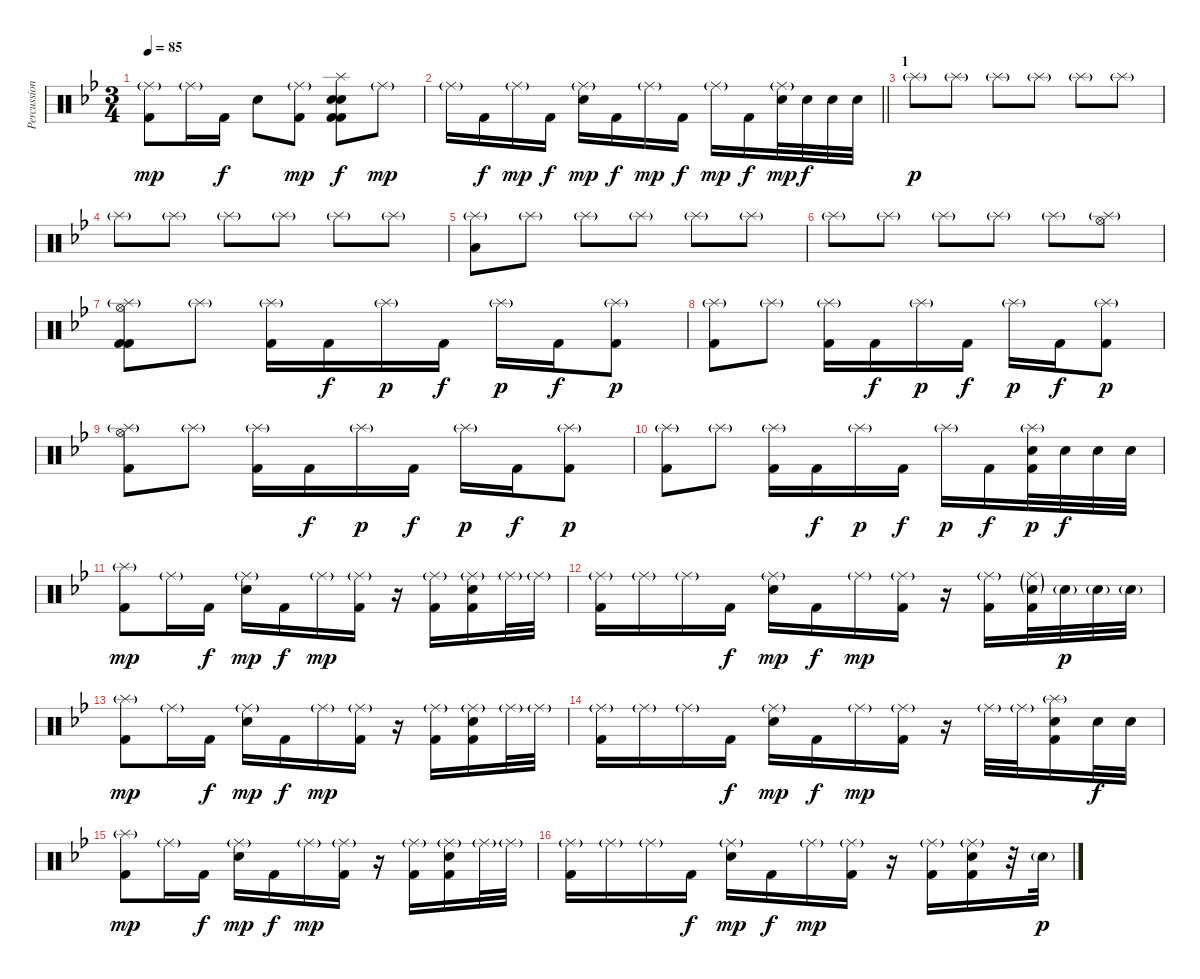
\track ("Percussion" "Percussion") {instrument percussion}
\staff {score}
\articulation defaults
\ts (3 4)
\tempo 85
\clef neutral
\ks bb
("Ride (middle)"{g} "Kick (hit) 2").8{dy mp} "Ride (middle)"{g}.16 "Kick (hit) 2".16{dy f} "Snare (hit) 2".8 ("Ride (middle)"{g} "Kick (hit) 2").8{dy mp} ("Splash (hit)" "Snare (hit) 2" "Snare (hit) 2" "Kick (hit) 2" "Kick (hit) 2").8{dy f} "Ride (middle)"{g}.8{dy mp} |
\barLineRight lightlight "Ride (middle)"{g}.16 "Kick (hit) 2".16{dy f} "Ride (middle)"{g}.16{dy mp} "Kick (hit) 2".16{dy f}
("Ride (middle)"{g} "Snare (hit) 2").16{dy mp} "Kick (hit) 2".16{dy f} "Ride (middle)"{g}.16{dy mp} "Kick (hit) 2".16{dy f} "Ride (middle)"{g}.16{dy mp} "Kick (hit) 2".16{dy f} ("Ride (middle)"{g} "Snare (hit) 2").32{dy mp} "Snare (hit) 2".32{dy f} "Snare (hit) 2".32 "Snare (hit) 2".32 |
\section ("" "1")
"Splash (hit)"{g}.8{dy p} "Splash (hit)"{g}.8 "Splash (hit)"{g}.8 "Splash (hit)"{g}.8 "Splash (hit)"{g}.8 "Splash (hit)"{g}.8 |
"Splash (hit)"{g}.8 "Splash (hit)"{g}.8 "Splash (hit)"{g}.8 "Splash (hit)"{g}.8 "Splash (hit)"{g}.8 "Splash (hit)"{g}.8 |
("Splash (hit)"{g} "Low Floor Tom (hit)").8 "Splash (hit)"{g}.8 "Splash (hit)"{g}.8 "Splash (hit)"{g}.8 "Splash (hit)"{g}.8 "Splash (hit)"{g}.8 |
"Splash (hit)"{g}.8 "Splash (hit)"{g}.8 "Splash (hit)"{g}.8 "Splash (hit)"{g}.8 "Splash (hit)"{g}.8 ("Splash (hit)"{g} "Hi-Hat (open)").8 |
("Splash (hit)"{g} "Hi-Hat (open)" "Kick (hit) 2" "Kick (hit) 2").8 "Splash (hit)"{g}.8 ("Splash (hit)"{g} "Kick (hit) 2").16 "Kick (hit) 2".16{dy f} "Splash (hit)"{g}.16{dy p} "Kick (hit) 2".16{dy f} "Splash (hit)"{g}.16{dy p} "Kick (hit) 2".16{dy f} ("Splash (hit)"{g} "Kick (hit) 2").8{dy p} |
("Splash (hit)"{g} "Kick (hit) 2").8 "Splash (hit)"{g}.8 ("Splash (hit)"{g} "Kick (hit) 2").16 "Kick (hit) 2".16{dy f} "Splash (hit)"{g}.16{dy p} "Kick (hit) 2".16{dy f} "Splash (hit)"{g}.16{dy p} "Kick (hit) 2".16{dy f} ("Splash (hit)"{g} "Kick (hit) 2").8{dy p} |
("Splash (hit)"{g} "Hi-Hat (open)" "Kick (hit) 2").8 "Splash (hit)"{g}.8 ("Splash (hit)"{g} "Kick (hit) 2").16 "Kick (hit) 2".16{dy f} "Splash (hit)"{g}.16{dy p} "Kick (hit) 2".16{dy f} "Splash (hit)"{g}.16{dy p} "Kick (hit) 2".16{dy f} ("Splash (hit)"{g} "Kick (hit) 2").8{dy p} |
("Splash (hit)"{g} "Kick (hit) 2").8 "Splash (hit)"{g}.8 ("Splash (hit)"{g} "Kick (hit) 2").16 "Kick (hit) 2".16{dy f} "Splash (hit)"{g}.16{dy p} "Kick (hit) 2".16{dy f} "Splash (hit)"{g}.16{dy p} "Kick (hit) 2".16{dy f} ("Splash (hit)"{g} "Snare (hit) 2" "Kick (hit) 2").32{dy p} "Snare (hit) 2".32{dy f} "Snare (hit) 2".32 "Snare (hit) 2".32 |
("Splash (hit)"{g} "Kick (hit) 2").8{dy mp} "Ride (middle)"{g}.16 "Kick (hit) 2".16{dy f} ("Ride (middle)"{g} "Snare (hit) 2").16{dy mp} "Kick (hit) 2".16{dy f} "Ride (middle)"{g}.16{dy mp} ("Ride (middle)"{g} "Kick (hit) 2").16 r.16 ("Ride (middle)"{g} "Kick (hit) 2").16 ("Ride (middle)"{g} "Snare (hit) 2" "Kick (hit) 2").16 "Ride (middle)"{g}.32 "Ride (middle)"{g}.32 |
("Ride (middle)"{g} "Kick (hit) 2").16 "Ride (middle)"{g}.16 "Ride (middle)"{g}.16 "Kick (hit) 2".16{dy f} ("Ride (middle)"{g} "Snare (hit) 2").16{dy mp} "Kick (hit) 2".16{dy f} "Ride (middle)"{g}.16{dy mp} ("Ride (middle)"{g} "Kick (hit) 2").16 r.16 ("Ride (middle)"{g} "Kick (hit) 2").16 ("Ride (middle)"{g} "Snare (hit) 2"{g} "Kick (hit) 2").32 "Snare (hit) 2"{g}.32{dy p} "Snare (hit) 2"{g}.32 "Snare (hit) 2"{g}.32 |
("Splash (hit)"{g} "Kick (hit) 2").8{dy mp} "Ride (middle)"{g}.16 "Kick (hit) 2".16{dy f} ("Ride (middle)"{g} "Snare (hit) 2").16{dy mp} "Kick (hit) 2".16{dy f} "Ride (middle)"{g}.16{dy mp} ("Ride (middle)"{g} "Kick (hit) 2").16 r.16 ("Ride (middle)"{g} "Kick (hit) 2").16 ("Ride (middle)"{g} "Snare (hit) 2" "Kick (hit) 2").16 "Ride (middle)"{g}.32 "Ride (middle)"{g}.32 |
("Ride (middle)"{g} "Kick (hit) 2").16 "Ride (middle)"{g}.16 "Ride (middle)"{g}.16 "Kick (hit) 2".16{dy f} ("Ride (middle)"{g} "Snare (hit) 2").16{dy mp} "Kick (hit) 2".16{dy f} "Ride (middle)"{g}.16{dy mp} ("Ride (middle)"{g} "Kick (hit) 2").16 r.16 "Ride (middle)"{g}.32 "Ride (middle)"{g}.32 ("Splash (hit)"{g} "Snare (hit) 2" "Kick (hit) 2").16 "Snare (hit) 2".32{dy f} "Snare (hit) 2".32 |
("Splash (hit)"{g} "Kick (hit) 2").8{dy mp} "Ride (middle)"{g}.16 "Kick (hit) 2".16{dy f} ("Ride (middle)"{g} "Snare (hit) 2").16{dy mp} "Kick (hit) 2".16{dy f} "Ride (middle)"{g}.16{dy mp} ("Ride (middle)"{g} "Kick (hit) 2").16 r.16 ("Ride (middle)"{g} "Kick (hit) 2").16 ("Ride (middle)"{g} "Snare (hit) 2" "Kick (hit) 2").16 "Ride (middle)"{g}.32 "Ride (middle)"{g}.32 |
("Ride (middle)"{g} "Kick (hit) 2").16 "Ride (middle)"{g}.16 "Ride (middle)"{g}.16 "Kick (hit) 2".16{dy f} ("Ride (middle)"{g} "Snare (hit) 2").16{dy mp} "Kick (hit) 2".16{dy f} "Ride (middle)"{g}.16{dy mp} ("Ride (middle)"{g} "Kick (hit) 2").16 r.16 ("Ride (middle)"{g} "Kick (hit) 2").16 ("Ride (middle)"{g} "Snare (hit) 2" "Kick (hit) 2").16 r.32 "Snare (hit) 2"{g}.32{dy p}
